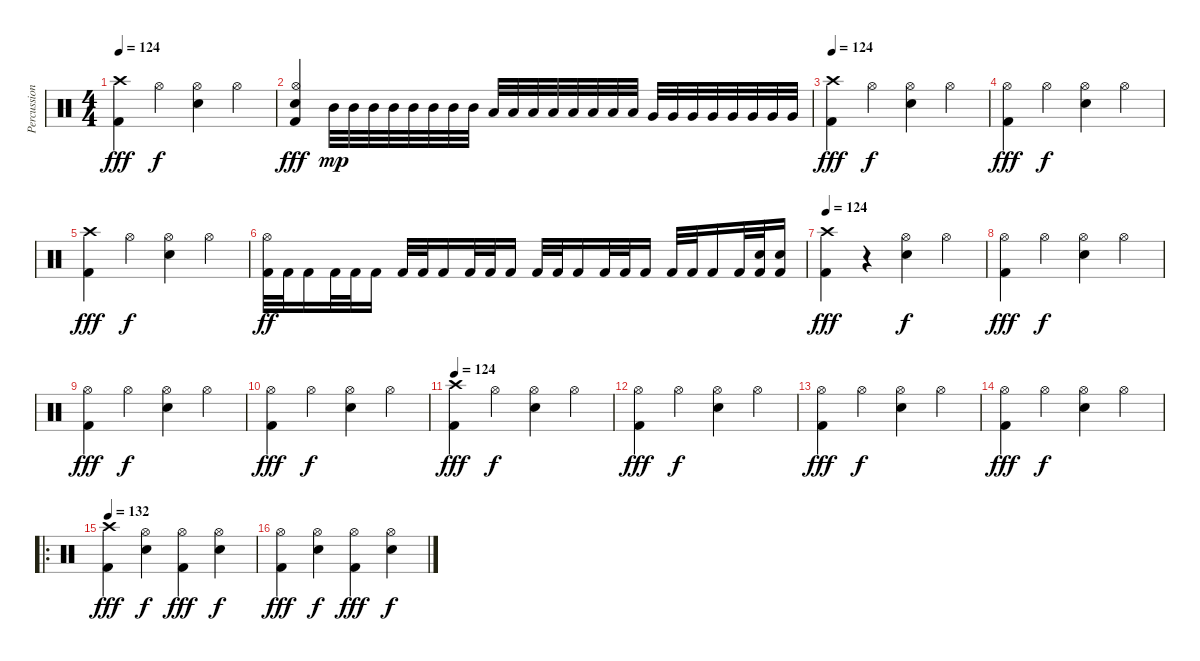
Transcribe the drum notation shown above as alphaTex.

\track ("Percussion" "Percussion") {instrument percussion}
\staff {score}
\articulation defaults
\ts (4 4)
\tempo 124
\clef neutral
\ks c
("Crash high (hit)" "Kick (hit) 2").4{dy fff} "Hi-Hat (open)".4{dy f} ("Hi-Hat (open)" "Snare (hit) 2").4 "Hi-Hat (open)".4 |
("Hi-Hat (open)" "Snare (hit) 2" "Kick (hit) 2").4{dy fff} "Mid Tom (hit)".32{dy mp} "Mid Tom (hit)".32 "Mid Tom (hit)".32 "Mid Tom (hit)".32 "Mid Tom (hit)".32 "Mid Tom (hit)".32 "Mid Tom (hit)".32 "Mid Tom (hit)".32 "Low Tom (hit)".32 "Low Tom (hit)".32 "Low Tom (hit)".32 "Low Tom (hit)".32 "Low Tom (hit)".32 "Low Tom (hit)".32 "Low Tom (hit)".32 "Low Tom (hit)".32 "Very Low Tom (hit)".32 "Very Low Tom (hit)".32 "Very Low Tom (hit)".32 "Very Low Tom (hit)".32 "Very Low Tom (hit)".32 "Very Low Tom (hit)".32 "Very Low Tom (hit)".32 "Very Low Tom (hit)".32 |
\tempo 124
("Crash high (hit)" "Kick (hit) 2").4{dy fff} "Hi-Hat (open)".4{dy f} ("Hi-Hat (open)" "Snare (hit) 2").4 "Hi-Hat (open)".4 |
("Hi-Hat (open)" "Kick (hit) 2").4{dy fff} "Hi-Hat (open)".4{dy f} ("Hi-Hat (open)" "Snare (hit) 2").4 "Hi-Hat (open)".4 |
("Crash high (hit)" "Kick (hit) 2").4{dy fff} "Hi-Hat (open)".4{dy f} ("Hi-Hat (open)" "Snare (hit) 2").4 "Hi-Hat (open)".4 |
("Hi-Hat (open)" "Kick (hit) 2").32{dy ff} "Kick (hit) 2".32 "Kick (hit) 2".16 "Kick (hit) 2".32 "Kick (hit) 2".32 "Kick (hit) 2".16 "Kick (hit) 2".32 "Kick (hit) 2".32 "Kick (hit) 2".16 "Kick (hit) 2".32 "Kick (hit) 2".32 "Kick (hit) 2".16 "Kick (hit) 2".32 "Kick (hit) 2".32 "Kick (hit) 2".16 "Kick (hit) 2".32 "Kick (hit) 2".32 "Kick (hit) 2".16 "Kick (hit) 2".32 "Kick (hit) 2".32 "Kick (hit) 2".16 "Kick (hit) 2".32 ("Snare (hit) 2" "Kick (hit) 2").32 ("Snare (hit) 2" "Kick (hit) 2").16 |
\tempo 124
("Crash high (hit)" "Kick (hit) 2").4{dy fff} r.4 ("Hi-Hat (open)" "Snare (hit) 2").4{dy f} "Hi-Hat (open)".4 |
("Hi-Hat (open)" "Kick (hit) 2").4{dy fff} "Hi-Hat (open)".4{dy f} ("Hi-Hat (open)" "Snare (hit) 2").4 "Hi-Hat (open)".4 |
("Hi-Hat (open)" "Kick (hit) 2").4{dy fff} "Hi-Hat (open)".4{dy f} ("Hi-Hat (open)" "Snare (hit) 2").4 "Hi-Hat (open)".4 |
("Hi-Hat (open)" "Kick (hit) 2").4{dy fff} "Hi-Hat (open)".4{dy f} ("Hi-Hat (open)" "Snare (hit) 2").4 "Hi-Hat (open)".4 |
\tempo 124
("Crash high (hit)" "Kick (hit) 2").4{dy fff} "Hi-Hat (open)".4{dy f} ("Hi-Hat (open)" "Snare (hit) 2").4 "Hi-Hat (open)".4 |
("Hi-Hat (open)" "Kick (hit) 2").4{dy fff} "Hi-Hat (open)".4{dy f} ("Hi-Hat (open)" "Snare (hit) 2").4 "Hi-Hat (open)".4 |
("Hi-Hat (open)" "Kick (hit) 2").4{dy fff} "Hi-Hat (open)".4{dy f} ("Hi-Hat (open)" "Snare (hit) 2").4 "Hi-Hat (open)".4 |
("Hi-Hat (open)" "Kick (hit) 2").4{dy fff} "Hi-Hat (open)".4{dy f} ("Hi-Hat (open)" "Snare (hit) 2").4 "Hi-Hat (open)".4 |
\ro
\tempo 132
("Crash high (hit)" "Kick (hit) 2").4{dy fff} ("Hi-Hat (open)" "Snare (hit) 2").4{dy f} ("Hi-Hat (open)" "Kick (hit) 2").4{dy fff} ("Hi-Hat (open)" "Snare (hit) 2").4{dy f} |
("Hi-Hat (open)" "Kick (hit) 2").4{dy fff} ("Hi-Hat (open)" "Snare (hit) 2").4{dy f} ("Hi-Hat (open)" "Kick (hit) 2").4{dy fff} ("Hi-Hat (open)" "Snare (hit) 2").4{dy f}
